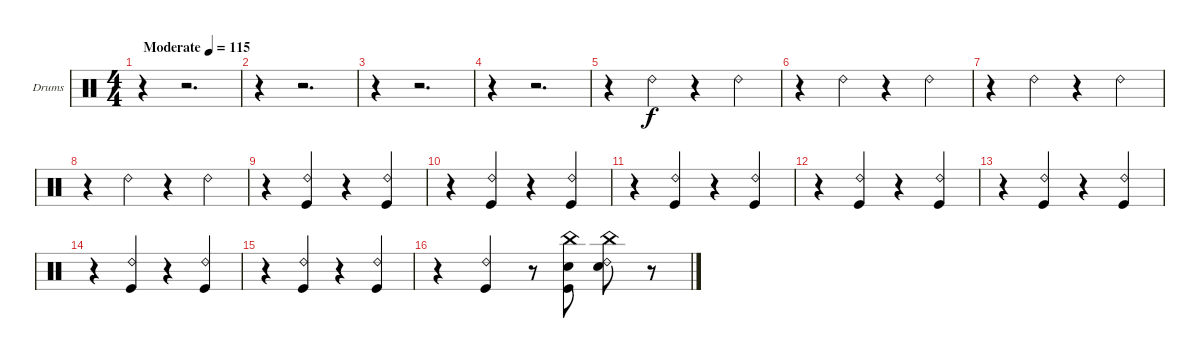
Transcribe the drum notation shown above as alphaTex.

\bracketExtendMode groupsimilarinstruments
\firstSystemTrackNameOrientation horizontal
\otherSystemsTrackNameOrientation horizontal
\track ("Drumkit" "Drums") {instrument percussion}
\staff {score}
\articulation defaults
\ts (4 4)
\beaming (8 2 2 2 2)
\tempo (115 "Moderate")
\clef neutral
\ks c
r.4{dy f} r.2{d} |
r.4 r.2{d} |
r.4 r.2{d} |
r.4 r.2{d} |
r.4 "Ride (bell) 2".4 r.4 "Ride (bell) 2".4 |
r.4 "Ride (bell) 2".4 r.4 "Ride (bell) 2".4 |
r.4 "Ride (bell) 2".4 r.4 "Ride (bell) 2".4 |
r.4 "Ride (bell) 2".4 r.4 "Ride (bell) 2".4 |
r.4 ("Ride (bell) 2" "Kick (hit)").4 r.4 ("Ride (bell) 2" "Kick (hit)").4 |
r.4 ("Ride (bell) 2" "Kick (hit)").4 r.4 ("Ride (bell) 2" "Kick (hit)").4 |
r.4 ("Ride (bell) 2" "Kick (hit)").4 r.4 ("Ride (bell) 2" "Kick (hit)").4 |
r.4 ("Ride (bell) 2" "Kick (hit)").4 r.4 ("Ride (bell) 2" "Kick (hit)").4 |
r.4 ("Ride (bell) 2" "Kick (hit)").4 r.4 ("Ride (bell) 2" "Kick (hit)").4 |
r.4 ("Ride (bell) 2" "Kick (hit)").4 r.4 ("Ride (bell) 2" "Kick (hit)").4 |
r.4 ("Ride (bell) 2" "Kick (hit)").4 r.4 ("Ride (bell) 2" "Kick (hit)").4 |
r.4 ("Ride (bell) 2" "Kick (hit)").4 r.8 ("Snare (hit) 2" "Kick (hit)" "China (hit)").8 ("Snare (hit) 2" "Ride (bell) 2" "China (hit)").8 r.8
